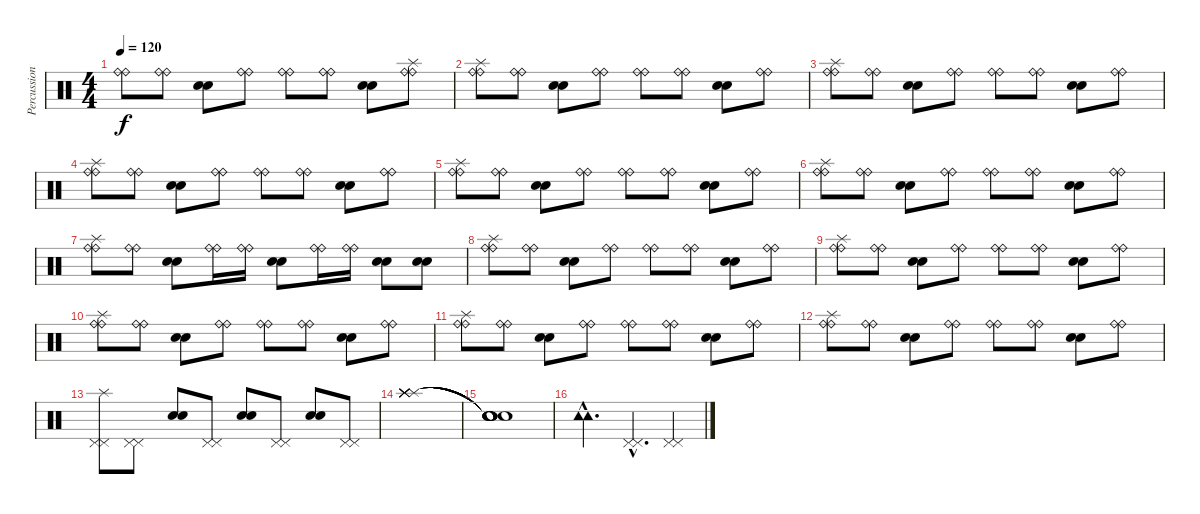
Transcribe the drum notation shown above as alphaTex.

\track ("Percussioni" "Percussion") {instrument percussion}
\staff {score}
\articulation defaults
\ts (4 4)
\tempo 120
\clef neutral
\ks c
("Ride (bell)" "Ride (bell)").8{dy f} ("Ride (bell)" "Ride (bell)").8 ("Snare (hit) 2" "Snare (hit) 2").8 ("Ride (bell)" "Ride (bell)").8 ("Ride (bell)" "Ride (bell)").8 ("Ride (bell)" "Ride (bell)").8 ("Snare (hit) 2" "Snare (hit) 2").8 ("Splash (hit)" "Ride (bell)" "Ride (bell)").8 |
("Splash (hit)" "Ride (bell)" "Ride (bell)").8 ("Ride (bell)" "Ride (bell)").8 ("Snare (hit) 2" "Snare (hit) 2").8 ("Ride (bell)" "Ride (bell)").8 ("Ride (bell)" "Ride (bell)").8 ("Ride (bell)" "Ride (bell)").8 ("Snare (hit) 2" "Snare (hit) 2").8 ("Ride (bell)" "Ride (bell)").8 |
("Splash (hit)" "Ride (bell)" "Ride (bell)").8 ("Ride (bell)" "Ride (bell)").8 ("Snare (hit) 2" "Snare (hit) 2").8 ("Ride (bell)" "Ride (bell)").8 ("Ride (bell)" "Ride (bell)").8 ("Ride (bell)" "Ride (bell)").8 ("Snare (hit) 2" "Snare (hit) 2").8 ("Ride (bell)" "Ride (bell)").8 |
("Splash (hit)" "Ride (bell)" "Ride (bell)").8 ("Ride (bell)" "Ride (bell)").8 ("Snare (hit) 2" "Snare (hit) 2").8 ("Ride (bell)" "Ride (bell)").8 ("Ride (bell)" "Ride (bell)").8 ("Ride (bell)" "Ride (bell)").8 ("Snare (hit) 2" "Snare (hit) 2").8 ("Ride (bell)" "Ride (bell)").8 |
("Splash (hit)" "Ride (bell)" "Ride (bell)").8 ("Ride (bell)" "Ride (bell)").8 ("Snare (hit) 2" "Snare (hit) 2").8 ("Ride (bell)" "Ride (bell)").8 ("Ride (bell)" "Ride (bell)").8 ("Ride (bell)" "Ride (bell)").8 ("Snare (hit) 2" "Snare (hit) 2").8 ("Ride (bell)" "Ride (bell)").8 |
("Splash (hit)" "Ride (bell)" "Ride (bell)").8 ("Ride (bell)" "Ride (bell)").8 ("Snare (hit) 2" "Snare (hit) 2").8 ("Ride (bell)" "Ride (bell)").8 ("Ride (bell)" "Ride (bell)").8 ("Ride (bell)" "Ride (bell)").8 ("Snare (hit) 2" "Snare (hit) 2").8 ("Ride (bell)" "Ride (bell)").8 |
("Splash (hit)" "Ride (bell)" "Ride (bell)").8 ("Ride (bell)" "Ride (bell)").8 ("Snare (hit) 2" "Snare (hit) 2").8 ("Ride (bell)" "Ride (bell)").16 ("Ride (bell)" "Ride (bell)").16 ("Snare (hit) 2" "Snare (hit) 2").8 ("Ride (bell)" "Ride (bell)").16 ("Ride (bell)" "Ride (bell)").16 ("Snare (hit) 2" "Snare (hit) 2").8 ("Snare (hit) 2" "Snare (hit) 2").8 |
("Splash (hit)" "Ride (bell)" "Ride (bell)").8 ("Ride (bell)" "Ride (bell)").8 ("Snare (hit) 2" "Snare (hit) 2").8 ("Ride (bell)" "Ride (bell)").8 ("Ride (bell)" "Ride (bell)").8 ("Ride (bell)" "Ride (bell)").8 ("Snare (hit) 2" "Snare (hit) 2").8 ("Ride (bell)" "Ride (bell)").8 |
("Splash (hit)" "Ride (bell)" "Ride (bell)").8 ("Ride (bell)" "Ride (bell)").8 ("Snare (hit) 2" "Snare (hit) 2").8 ("Ride (bell)" "Ride (bell)").8 ("Ride (bell)" "Ride (bell)").8 ("Ride (bell)" "Ride (bell)").8 ("Snare (hit) 2" "Snare (hit) 2").8 ("Ride (bell)" "Ride (bell)").8 |
("Splash (hit)" "Ride (bell)" "Ride (bell)").8 ("Ride (bell)" "Ride (bell)").8 ("Snare (hit) 2" "Snare (hit) 2").8 ("Ride (bell)" "Ride (bell)").8 ("Ride (bell)" "Ride (bell)").8 ("Ride (bell)" "Ride (bell)").8 ("Snare (hit) 2" "Snare (hit) 2").8 ("Ride (bell)" "Ride (bell)").8 |
("Splash (hit)" "Ride (bell)" "Ride (bell)").8 ("Ride (bell)" "Ride (bell)").8 ("Snare (hit) 2" "Snare (hit) 2").8 ("Ride (bell)" "Ride (bell)").8 ("Ride (bell)" "Ride (bell)").8 ("Ride (bell)" "Ride (bell)").8 ("Snare (hit) 2" "Snare (hit) 2").8 ("Ride (bell)" "Ride (bell)").8 |
("Splash (hit)" "Ride (bell)" "Ride (bell)").8 ("Ride (bell)" "Ride (bell)").8 ("Snare (hit) 2" "Snare (hit) 2").8 ("Ride (bell)" "Ride (bell)").8 ("Ride (bell)" "Ride (bell)").8 ("Ride (bell)" "Ride (bell)").8 ("Snare (hit) 2" "Snare (hit) 2").8 ("Ride (bell)" "Ride (bell)").8 |
("Splash (hit)" "Pedal Hi-Hat (hit)" "Pedal Hi-Hat (hit)").8 ("Pedal Hi-Hat (hit)" "Pedal Hi-Hat (hit)").8 ("Snare (hit) 2" "Snare (hit) 2").8 ("Pedal Hi-Hat (hit)" "Pedal Hi-Hat (hit)").8 ("Snare (hit) 2" "Snare (hit) 2").8 ("Pedal Hi-Hat (hit)" "Pedal Hi-Hat (hit)").8 ("Snare (hit) 2" "Snare (hit) 2").8 ("Pedal Hi-Hat (hit)" "Pedal Hi-Hat (hit)").8 |
("Splash (hit)" "Splash (hit)" "Splash (hit)" "Splash (hit)" "Splash (hit)" "Splash (hit)").1 |
("Snare (hit)"{t} "Snare (hit)"{t} "Snare (hit)"{t} "Snare (hit)"{t} "Snare (hit)"{t} "Snare (hit)"{t}).1 |
("Tambourine (hit)"{hac} "Tambourine (hit)"{hac}).4{d} ("Pedal Hi-Hat (hit)"{hac} "Pedal Hi-Hat (hit)"{hac}).4{d} ("Pedal Hi-Hat (hit)" "Pedal Hi-Hat (hit)").4
